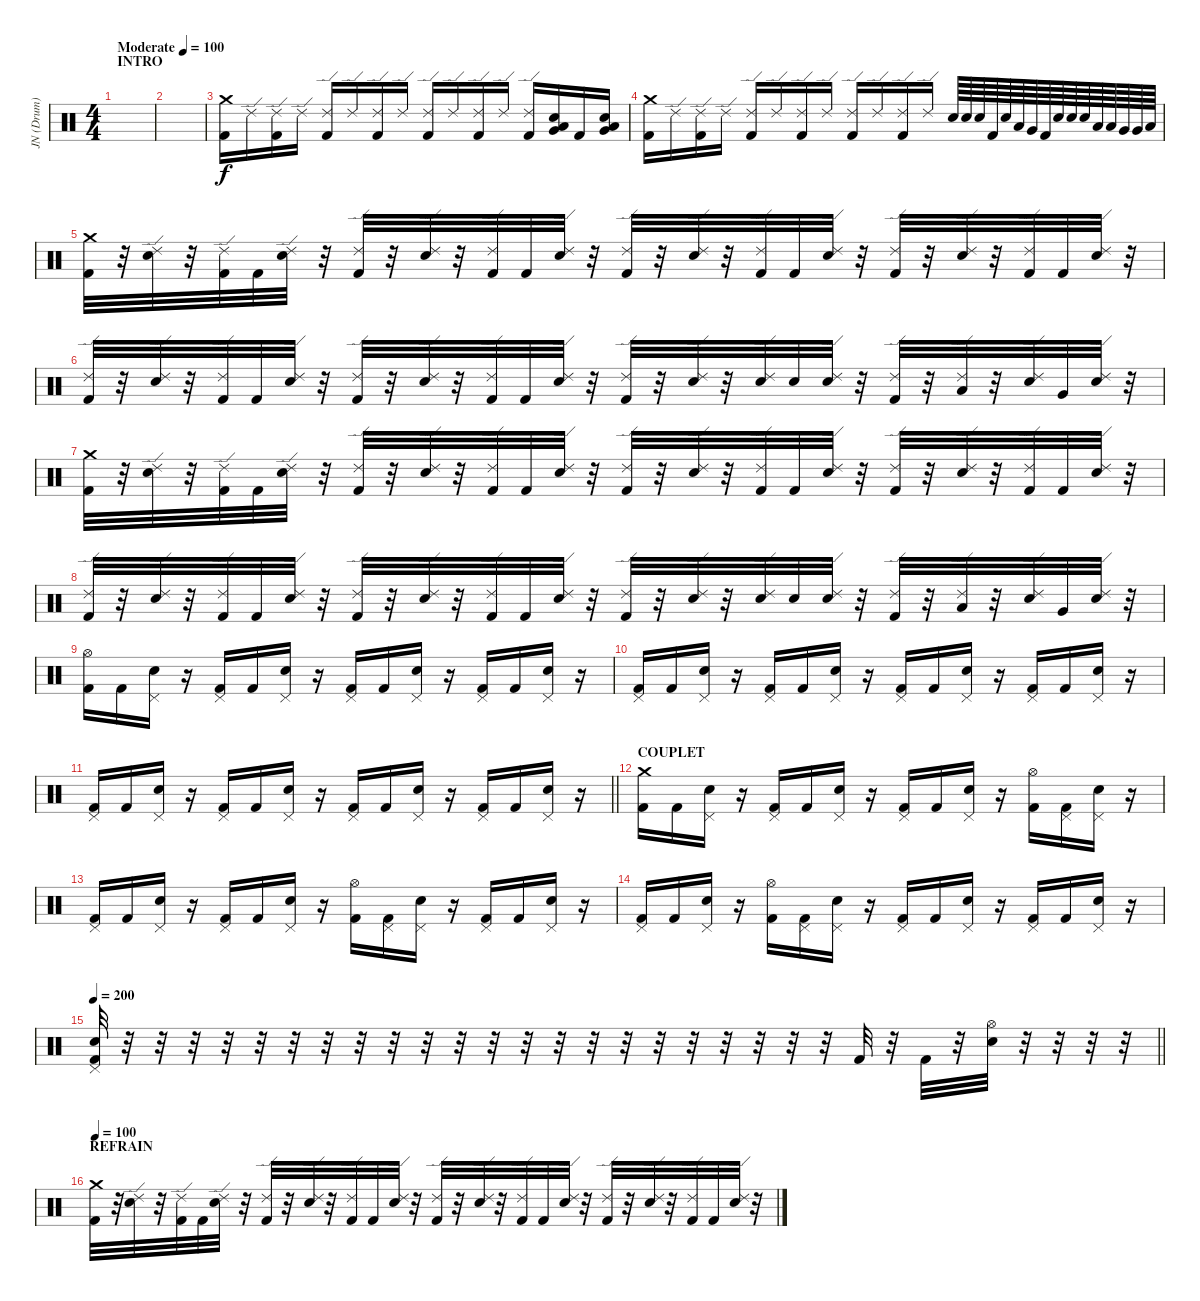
\track ("JN (Drum)" "JN (Drum)") {instrument percussion}
\staff {score}
\articulation defaults
\ts (4 4)
\section ("" "INTRO")
\tempo (100 "Moderate")
\clef neutral
\ks c
|
|
("Crash medium (hit)" "Kick (hit) 2").16 "Ride (edge) 2".16 ("Ride (edge) 2" "Kick (hit) 2").16 "Ride (edge) 2".16 ("Ride (edge) 2" "Kick (hit) 2").16 "Ride (edge) 2".16 ("Ride (edge) 2" "Kick (hit) 2").16 "Ride (edge) 2".16 ("Ride (edge) 2" "Kick (hit) 2").16 "Ride (edge) 2".16 ("Ride (edge) 2" "Kick (hit) 2").16 "Ride (edge) 2".16 ("Ride (edge) 2" "Kick (hit) 2").16 ("Very Low Tom (hit)" "Low Tom (hit)" "Electric Snare (hit)").16 "Kick (hit) 2".16 ("Very Low Tom (hit)" "Low Tom (hit)" "Electric Snare (hit)").16 |
("Crash medium (hit)" "Kick (hit) 2").16 "Ride (edge) 2".16 ("Ride (edge) 2" "Kick (hit) 2").16 "Ride (edge) 2".16 ("Ride (edge) 2" "Kick (hit) 2").16 "Ride (edge) 2".16 ("Ride (edge) 2" "Kick (hit) 2").16 "Ride (edge) 2".16 ("Ride (edge) 2" "Kick (hit) 2").16 "Ride (edge) 2".16 ("Ride (edge) 2" "Kick (hit) 2").16 "Ride (edge) 2".16 "Electric Snare (hit)".64 "Electric Snare (hit)".64 "Electric Snare (hit)".64 "Kick (hit) 2".64 "Electric Snare (hit)".64 "Low Tom (hit)".64 "Very Low Tom (hit)".64 "Kick (hit) 2".64 "Electric Snare (hit)".64 "Electric Snare (hit)".64 "Electric Snare (hit)".64 "Low Tom (hit)".64 "Low Tom (hit)".64 "Very Low Tom (hit)".64 "Very Low Tom (hit)".64 "Low Floor Tom (hit)".64 |
("Crash medium (hit)" "Kick (hit) 2").32 r.32 ("Ride (edge) 2" "Electric Snare (hit)").32 r.32 ("Ride (edge) 2" "Kick (hit) 2").32 "Kick (hit) 2".32 ("Ride (edge) 2" "Electric Snare (hit)").32 r.32 ("Ride (edge) 2" "Kick (hit) 2").32 r.32 ("Ride (edge) 2" "Electric Snare (hit)").32 r.32 ("Ride (edge) 2" "Kick (hit) 2").32 "Kick (hit) 2".32 ("Ride (edge) 2" "Electric Snare (hit)").32 r.32 ("Ride (edge) 2" "Kick (hit) 2").32 r.32 ("Ride (edge) 2" "Electric Snare (hit)").32 r.32 ("Ride (edge) 2" "Kick (hit) 2").32 "Kick (hit) 2".32 ("Ride (edge) 2" "Electric Snare (hit)").32 r.32 ("Ride (edge) 2" "Kick (hit) 2").32 r.32 ("Ride (edge) 2" "Electric Snare (hit)").32 r.32 ("Ride (edge) 2" "Kick (hit) 2").32 "Kick (hit) 2".32 ("Ride (edge) 2" "Electric Snare (hit)").32 r.32 |
("Ride (edge) 2" "Kick (hit) 2").32 r.32 ("Ride (edge) 2" "Electric Snare (hit)").32 r.32 ("Ride (edge) 2" "Kick (hit) 2").32 "Kick (hit) 2".32 ("Ride (edge) 2" "Electric Snare (hit)").32 r.32 ("Ride (edge) 2" "Kick (hit) 2").32 r.32 ("Ride (edge) 2" "Electric Snare (hit)").32 r.32 ("Ride (edge) 2" "Kick (hit) 2").32 "Kick (hit) 2".32 ("Ride (edge) 2" "Electric Snare (hit)").32 r.32 ("Ride (edge) 2" "Kick (hit) 2").32 r.32 ("Ride (edge) 2" "Electric Snare (hit)").32 r.32 ("Ride (edge) 2" "Electric Snare (hit)").32 "Electric Snare (hit)".32 ("Ride (edge) 2" "Electric Snare (hit)").32 r.32 ("Ride (edge) 2" "Kick (hit) 2").32 r.32 ("Ride (edge) 2" "Low Tom (hit)").32 r.32 ("Ride (edge) 2" "Electric Snare (hit)").32 "Very Low Tom (hit)".32 ("Ride (edge) 2" "Electric Snare (hit)").32 r.32 |
("Crash medium (hit)" "Kick (hit) 2").32 r.32 ("Ride (edge) 2" "Electric Snare (hit)").32 r.32 ("Ride (edge) 2" "Kick (hit) 2").32 "Kick (hit) 2".32 ("Ride (edge) 2" "Electric Snare (hit)").32 r.32 ("Ride (edge) 2" "Kick (hit) 2").32 r.32 ("Ride (edge) 2" "Electric Snare (hit)").32 r.32 ("Ride (edge) 2" "Kick (hit) 2").32 "Kick (hit) 2".32 ("Ride (edge) 2" "Electric Snare (hit)").32 r.32 ("Ride (edge) 2" "Kick (hit) 2").32 r.32 ("Ride (edge) 2" "Electric Snare (hit)").32 r.32 ("Ride (edge) 2" "Kick (hit) 2").32 "Kick (hit) 2".32 ("Ride (edge) 2" "Electric Snare (hit)").32 r.32 ("Ride (edge) 2" "Kick (hit) 2").32 r.32 ("Ride (edge) 2" "Electric Snare (hit)").32 r.32 ("Ride (edge) 2" "Kick (hit) 2").32 "Kick (hit) 2".32 ("Ride (edge) 2" "Electric Snare (hit)").32 r.32 |
("Ride (edge) 2" "Kick (hit) 2").32 r.32 ("Ride (edge) 2" "Electric Snare (hit)").32 r.32 ("Ride (edge) 2" "Kick (hit) 2").32 "Kick (hit) 2".32 ("Ride (edge) 2" "Electric Snare (hit)").32 r.32 ("Ride (edge) 2" "Kick (hit) 2").32 r.32 ("Ride (edge) 2" "Electric Snare (hit)").32 r.32 ("Ride (edge) 2" "Kick (hit) 2").32 "Kick (hit) 2".32 ("Ride (edge) 2" "Electric Snare (hit)").32 r.32 ("Ride (edge) 2" "Kick (hit) 2").32 r.32 ("Ride (edge) 2" "Electric Snare (hit)").32 r.32 ("Ride (edge) 2" "Electric Snare (hit)").32 "Electric Snare (hit)".32 ("Ride (edge) 2" "Electric Snare (hit)").32 r.32 ("Ride (edge) 2" "Kick (hit) 2").32 r.32 ("Ride (edge) 2" "Low Tom (hit)").32 r.32 ("Ride (edge) 2" "Electric Snare (hit)").32 "Very Low Tom (hit)".32 ("Ride (edge) 2" "Electric Snare (hit)").32 r.32 |
("Hi-Hat (open)" "Kick (hit) 2").16 "Kick (hit) 2".16 ("Pedal Hi-Hat (hit)" "Electric Snare (hit)").16 r.16 ("Pedal Hi-Hat (hit)" "Kick (hit) 2").16 "Kick (hit) 2".16 ("Pedal Hi-Hat (hit)" "Electric Snare (hit)").16 r.16 ("Pedal Hi-Hat (hit)" "Kick (hit) 2").16 "Kick (hit) 2".16 ("Pedal Hi-Hat (hit)" "Electric Snare (hit)").16 r.16 ("Pedal Hi-Hat (hit)" "Kick (hit) 2").16 "Kick (hit) 2".16 ("Pedal Hi-Hat (hit)" "Electric Snare (hit)").16 r.16 |
("Pedal Hi-Hat (hit)" "Kick (hit) 2").16 "Kick (hit) 2".16 ("Pedal Hi-Hat (hit)" "Electric Snare (hit)").16 r.16 ("Pedal Hi-Hat (hit)" "Kick (hit) 2").16 "Kick (hit) 2".16 ("Pedal Hi-Hat (hit)" "Electric Snare (hit)").16 r.16 ("Pedal Hi-Hat (hit)" "Kick (hit) 2").16 "Kick (hit) 2".16 ("Pedal Hi-Hat (hit)" "Electric Snare (hit)").16 r.16 ("Pedal Hi-Hat (hit)" "Kick (hit) 2").16 "Kick (hit) 2".16 ("Pedal Hi-Hat (hit)" "Electric Snare (hit)").16 r.16 |
\barLineRight lightlight
("Pedal Hi-Hat (hit)" "Kick (hit) 2").16 "Kick (hit) 2".16 ("Pedal Hi-Hat (hit)" "Electric Snare (hit)").16 r.16 ("Pedal Hi-Hat (hit)" "Kick (hit) 2").16 "Kick (hit) 2".16 ("Pedal Hi-Hat (hit)" "Electric Snare (hit)").16 r.16 ("Pedal Hi-Hat (hit)" "Kick (hit) 2").16 "Kick (hit) 2".16 ("Pedal Hi-Hat (hit)" "Electric Snare (hit)").16 r.16 ("Pedal Hi-Hat (hit)" "Kick (hit) 2").16 "Kick (hit) 2".16 ("Pedal Hi-Hat (hit)" "Electric Snare (hit)").16 r.16 |
\section ("" "COUPLET")
("Crash medium (hit)" "Kick (hit) 2").16 "Kick (hit) 2".16 ("Pedal Hi-Hat (hit)" "Electric Snare (hit)").16 r.16 ("Pedal Hi-Hat (hit)" "Kick (hit) 2").16 "Kick (hit) 2".16 ("Pedal Hi-Hat (hit)" "Electric Snare (hit)").16 r.16 ("Pedal Hi-Hat (hit)" "Kick (hit) 2").16 "Kick (hit) 2".16 ("Pedal Hi-Hat (hit)" "Electric Snare (hit)").16 r.16 ("Hi-Hat (open)" "Kick (hit) 2").16 ("Pedal Hi-Hat (hit)" "Kick (hit) 2").16 ("Pedal Hi-Hat (hit)" "Electric Snare (hit)").16 r.16 |
("Pedal Hi-Hat (hit)" "Kick (hit) 2").16 "Kick (hit) 2".16 ("Pedal Hi-Hat (hit)" "Electric Snare (hit)").16 r.16 ("Pedal Hi-Hat (hit)" "Kick (hit) 2").16 "Kick (hit) 2".16 ("Pedal Hi-Hat (hit)" "Electric Snare (hit)").16 r.16 ("Hi-Hat (open)" "Kick (hit) 2").16 ("Pedal Hi-Hat (hit)" "Kick (hit) 2").16 ("Pedal Hi-Hat (hit)" "Electric Snare (hit)").16 r.16 ("Pedal Hi-Hat (hit)" "Kick (hit) 2").16 "Kick (hit) 2".16 ("Pedal Hi-Hat (hit)" "Electric Snare (hit)").16 r.16 |
("Pedal Hi-Hat (hit)" "Kick (hit) 2").16 "Kick (hit) 2".16 ("Pedal Hi-Hat (hit)" "Electric Snare (hit)").16 r.16 ("Hi-Hat (open)" "Kick (hit) 2").16 ("Pedal Hi-Hat (hit)" "Kick (hit) 2").16 ("Pedal Hi-Hat (hit)" "Electric Snare (hit)").16 r.16 ("Pedal Hi-Hat (hit)" "Kick (hit) 2").16 "Kick (hit) 2".16 ("Pedal Hi-Hat (hit)" "Electric Snare (hit)").16 r.16 ("Pedal Hi-Hat (hit)" "Kick (hit) 2").16 "Kick (hit) 2".16 ("Pedal Hi-Hat (hit)" "Electric Snare (hit)").16 r.16 |
\tempo 200
\barLineRight lightlight
("Pedal Hi-Hat (hit)" "Electric Snare (hit)" "Kick (hit) 2").32 r.32 r.32 r.32 r.32 r.32 r.32 r.32 r.32 r.32 r.32 r.32 r.32 r.32 r.32 r.32 r.32 r.32 r.32 r.32 r.32 r.32 r.32 "Kick (hit) 2".32 r.32 "Kick (hit) 2".32 r.32 ("Hi-Hat (open)" "Electric Snare (hit)").32 r.32 r.32 r.32 r.32 |
\section ("" "REFRAIN")
\tempo 100
("Crash medium (hit)" "Kick (hit) 2").32 r.32 ("Ride (edge) 2" "Electric Snare (hit)").32 r.32 ("Ride (edge) 2" "Kick (hit) 2").32 "Kick (hit) 2".32 ("Ride (edge) 2" "Electric Snare (hit)").32 r.32 ("Ride (edge) 2" "Kick (hit) 2").32 r.32 ("Ride (edge) 2" "Electric Snare (hit)").32 r.32 ("Ride (edge) 2" "Kick (hit) 2").32 "Kick (hit) 2".32 ("Ride (edge) 2" "Electric Snare (hit)").32 r.32 ("Ride (edge) 2" "Kick (hit) 2").32 r.32 ("Ride (edge) 2" "Electric Snare (hit)").32 r.32 ("Ride (edge) 2" "Kick (hit) 2").32 "Kick (hit) 2".32 ("Ride (edge) 2" "Electric Snare (hit)").32 r.32 ("Ride (edge) 2" "Kick (hit) 2").32 r.32 ("Ride (edge) 2" "Electric Snare (hit)").32 r.32 ("Ride (edge) 2" "Kick (hit) 2").32 "Kick (hit) 2".32 ("Ride (edge) 2" "Electric Snare (hit)").32 r.32
